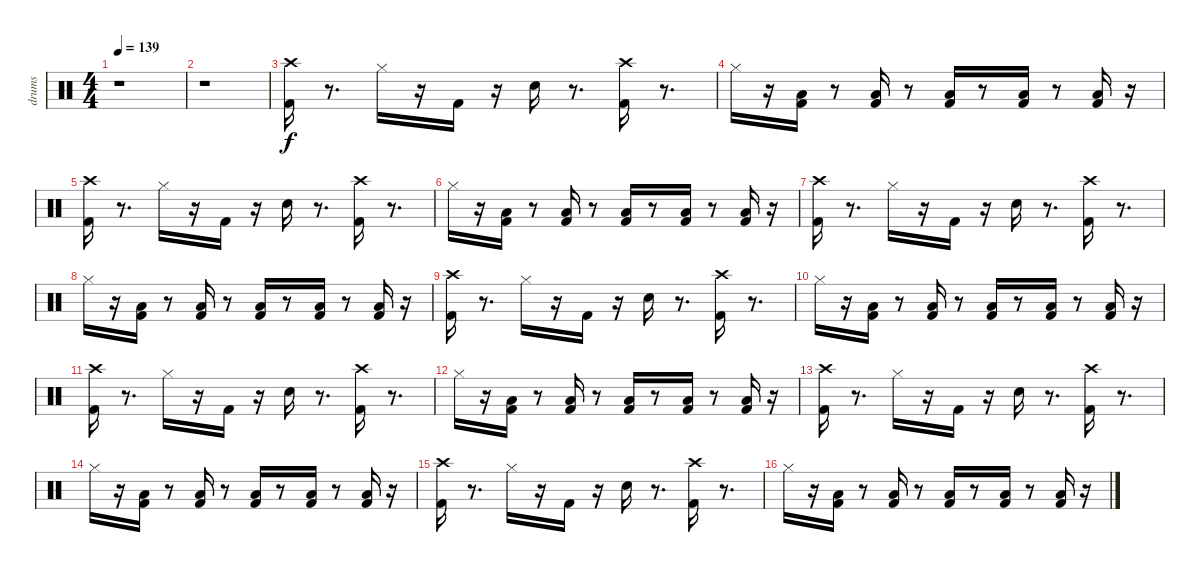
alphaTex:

\track ("drums" "drums") {instrument percussion}
\staff {score}
\articulation defaults
\ts (4 4)
\tempo 139
\clef neutral
\ks c
r.1{dy f} |
r.1 |
("Kick (hit) 2" "Crash high (hit)").16 r.8{d} "Hi-Hat (closed)".16 r.16 "Kick (hit) 2".16 r.16 "Electric Snare (hit)".16 r.8{d} ("Kick (hit) 2" "Crash high (hit)").16 r.8{d} |
"Hi-Hat (closed)".16 r.16 ("Kick (hit) 2" "Low Floor Tom (hit)").16 r.8 ("Kick (hit) 2" "Low Floor Tom (hit)").16 r.8 ("Kick (hit) 2" "Low Floor Tom (hit)").16 r.8 ("Kick (hit) 2" "Low Floor Tom (hit)").16 r.8 ("Kick (hit) 2" "Low Floor Tom (hit)").16 r.16 |
("Kick (hit) 2" "Crash high (hit)").16 r.8{d} "Hi-Hat (closed)".16 r.16 "Kick (hit) 2".16 r.16 "Electric Snare (hit)".16 r.8{d} ("Kick (hit) 2" "Crash high (hit)").16 r.8{d} |
"Hi-Hat (closed)".16 r.16 ("Kick (hit) 2" "Low Floor Tom (hit)").16 r.8 ("Kick (hit) 2" "Low Floor Tom (hit)").16 r.8 ("Kick (hit) 2" "Low Floor Tom (hit)").16 r.8 ("Kick (hit) 2" "Low Floor Tom (hit)").16 r.8 ("Kick (hit) 2" "Low Floor Tom (hit)").16 r.16 |
("Kick (hit) 2" "Crash high (hit)").16 r.8{d} "Hi-Hat (closed)".16 r.16 "Kick (hit) 2".16 r.16 "Electric Snare (hit)".16 r.8{d} ("Kick (hit) 2" "Crash high (hit)").16 r.8{d} |
"Hi-Hat (closed)".16 r.16 ("Kick (hit) 2" "Low Floor Tom (hit)").16 r.8 ("Kick (hit) 2" "Low Floor Tom (hit)").16 r.8 ("Kick (hit) 2" "Low Floor Tom (hit)").16 r.8 ("Kick (hit) 2" "Low Floor Tom (hit)").16 r.8 ("Kick (hit) 2" "Low Floor Tom (hit)").16 r.16 |
("Kick (hit) 2" "Crash high (hit)").16 r.8{d} "Hi-Hat (closed)".16 r.16 "Kick (hit) 2".16 r.16 "Electric Snare (hit)".16 r.8{d} ("Kick (hit) 2" "Crash high (hit)").16 r.8{d} |
"Hi-Hat (closed)".16 r.16 ("Kick (hit) 2" "Low Floor Tom (hit)").16 r.8 ("Kick (hit) 2" "Low Floor Tom (hit)").16 r.8 ("Kick (hit) 2" "Low Floor Tom (hit)").16 r.8 ("Kick (hit) 2" "Low Floor Tom (hit)").16 r.8 ("Kick (hit) 2" "Low Floor Tom (hit)").16 r.16 |
("Kick (hit) 2" "Crash high (hit)").16 r.8{d} "Hi-Hat (closed)".16 r.16 "Kick (hit) 2".16 r.16 "Electric Snare (hit)".16 r.8{d} ("Kick (hit) 2" "Crash high (hit)").16 r.8{d} |
"Hi-Hat (closed)".16 r.16 ("Kick (hit) 2" "Low Floor Tom (hit)").16 r.8 ("Kick (hit) 2" "Low Floor Tom (hit)").16 r.8 ("Kick (hit) 2" "Low Floor Tom (hit)").16 r.8 ("Kick (hit) 2" "Low Floor Tom (hit)").16 r.8 ("Kick (hit) 2" "Low Floor Tom (hit)").16 r.16 |
("Kick (hit) 2" "Crash high (hit)").16 r.8{d} "Hi-Hat (closed)".16 r.16 "Kick (hit) 2".16 r.16 "Electric Snare (hit)".16 r.8{d} ("Kick (hit) 2" "Crash high (hit)").16 r.8{d} |
"Hi-Hat (closed)".16 r.16 ("Kick (hit) 2" "Low Floor Tom (hit)").16 r.8 ("Kick (hit) 2" "Low Floor Tom (hit)").16 r.8 ("Kick (hit) 2" "Low Floor Tom (hit)").16 r.8 ("Kick (hit) 2" "Low Floor Tom (hit)").16 r.8 ("Kick (hit) 2" "Low Floor Tom (hit)").16 r.16 |
("Kick (hit) 2" "Crash high (hit)").16 r.8{d} "Hi-Hat (closed)".16 r.16 "Kick (hit) 2".16 r.16 "Electric Snare (hit)".16 r.8{d} ("Kick (hit) 2" "Crash high (hit)").16 r.8{d} |
"Hi-Hat (closed)".16 r.16 ("Kick (hit) 2" "Low Floor Tom (hit)").16 r.8 ("Kick (hit) 2" "Low Floor Tom (hit)").16 r.8 ("Kick (hit) 2" "Low Floor Tom (hit)").16 r.8 ("Kick (hit) 2" "Low Floor Tom (hit)").16 r.8 ("Kick (hit) 2" "Low Floor Tom (hit)").16 r.16
